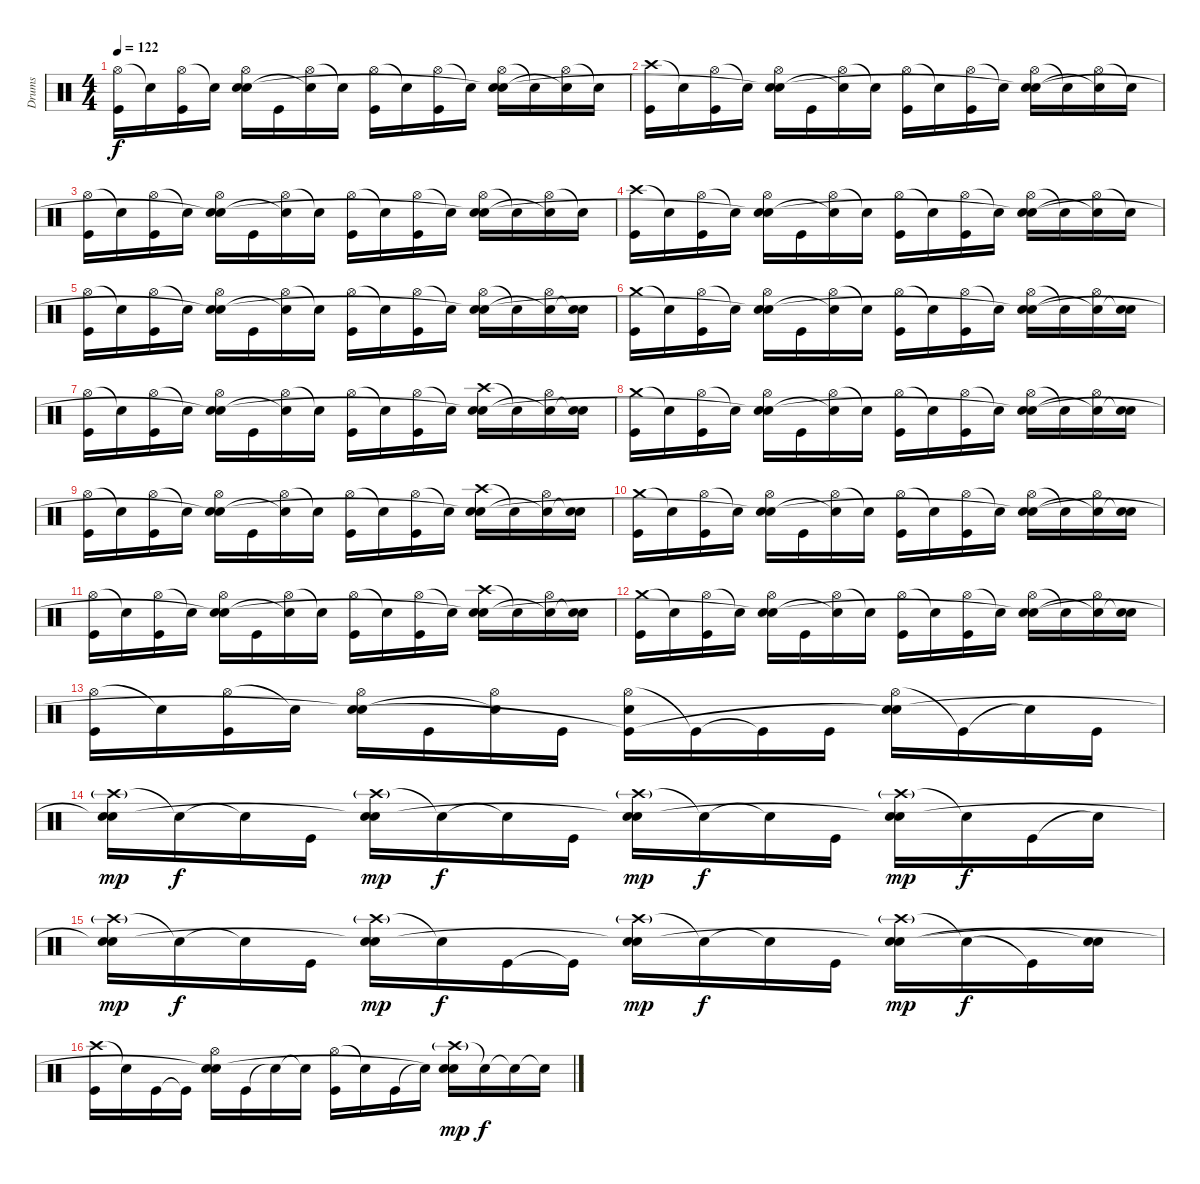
\track ("Drums" "Drums") {instrument percussion}
\staff {score}
\articulation defaults
\ts (4 4)
\tempo 122
\clef neutral
\ks c
("Hi-Hat (open)" "Kick (hit)").16{dy f} "Snare (hit)"{t}.16 ("Hi-Hat (open)" "Kick (hit)").16 "Snare (hit)"{t}.16 ("Hi-Hat (open)" "Electric Snare (hit)" "Snare (hit)"{t}).16 "Kick (hit)".16 ("Hi-Hat (open)" "Snare (hit)"{t}).16 "Snare (hit)"{t}.16 ("Hi-Hat (open)" "Kick (hit)").16 "Snare (hit)"{t}.16 ("Hi-Hat (open)" "Kick (hit)").16 "Snare (hit)"{t}.16 ("Hi-Hat (open)" "Electric Snare (hit)" "Snare (hit)"{t}).16 "Snare (hit)"{t}.16 ("Hi-Hat (open)" "Snare (hit)"{t}).16 "Snare (hit)"{t}.16 |
("Crash high (hit)" "Kick (hit)").16 "Snare (hit)"{t}.16 ("Hi-Hat (open)" "Kick (hit)").16 "Snare (hit)"{t}.16 ("Hi-Hat (open)" "Electric Snare (hit)" "Snare (hit)"{t}).16 "Kick (hit)".16 ("Hi-Hat (open)" "Snare (hit)"{t}).16 "Snare (hit)"{t}.16 ("Hi-Hat (open)" "Kick (hit)").16 "Snare (hit)"{t}.16 ("Hi-Hat (open)" "Kick (hit)").16 "Snare (hit)"{t}.16 ("Hi-Hat (open)" "Electric Snare (hit)" "Snare (hit)"{t}).16 "Snare (hit)"{t}.16 ("Hi-Hat (open)" "Snare (hit)"{t}).16 "Snare (hit)"{t}.16 |
("Hi-Hat (open)" "Kick (hit)").16 "Snare (hit)"{t}.16 ("Hi-Hat (open)" "Kick (hit)").16 "Snare (hit)"{t}.16 ("Hi-Hat (open)" "Electric Snare (hit)" "Snare (hit)"{t}).16 "Kick (hit)".16 ("Hi-Hat (open)" "Snare (hit)"{t}).16 "Snare (hit)"{t}.16 ("Hi-Hat (open)" "Kick (hit)").16 "Snare (hit)"{t}.16 ("Hi-Hat (open)" "Kick (hit)").16 "Snare (hit)"{t}.16 ("Hi-Hat (open)" "Electric Snare (hit)" "Snare (hit)"{t}).16 "Snare (hit)"{t}.16 ("Hi-Hat (open)" "Snare (hit)"{t}).16 "Snare (hit)"{t}.16 |
("Crash high (hit)" "Kick (hit)").16 "Snare (hit)"{t}.16 ("Hi-Hat (open)" "Kick (hit)").16 "Snare (hit)"{t}.16 ("Hi-Hat (open)" "Electric Snare (hit)" "Snare (hit)"{t}).16 "Kick (hit)".16 ("Hi-Hat (open)" "Snare (hit)"{t}).16 "Snare (hit)"{t}.16 ("Hi-Hat (open)" "Kick (hit)").16 "Snare (hit)"{t}.16 ("Hi-Hat (open)" "Kick (hit)").16 "Snare (hit)"{t}.16 ("Hi-Hat (open)" "Electric Snare (hit)" "Snare (hit)"{t}).16 "Snare (hit)"{t}.16 ("Hi-Hat (open)" "Snare (hit)"{t}).16 "Snare (hit)"{t}.16 |
("Hi-Hat (open)" "Kick (hit)").16 "Snare (hit)"{t}.16 ("Hi-Hat (open)" "Kick (hit)").16 "Snare (hit)"{t}.16 ("Hi-Hat (open)" "Electric Snare (hit)" "Snare (hit)"{t}).16 "Kick (hit)".16 ("Hi-Hat (open)" "Snare (hit)"{t}).16 "Snare (hit)"{t}.16 ("Hi-Hat (open)" "Kick (hit)").16 "Snare (hit)"{t}.16 ("Hi-Hat (open)" "Kick (hit)").16 "Snare (hit)"{t}.16 ("Hi-Hat (open)" "Electric Snare (hit)" "Snare (hit)"{t}).16 "Snare (hit)"{t}.16 ("Hi-Hat (open)" "Snare (hit)"{t}).16 ("Electric Snare (hit)" "Snare (hit)"{t}).16 |
("Crash medium (hit)" "Kick (hit)").16 "Snare (hit)"{t}.16 ("Hi-Hat (open)" "Kick (hit)").16 "Snare (hit)"{t}.16 ("Hi-Hat (open)" "Electric Snare (hit)" "Snare (hit)"{t}).16 "Kick (hit)".16 ("Hi-Hat (open)" "Snare (hit)"{t}).16 "Snare (hit)"{t}.16 ("Hi-Hat (open)" "Kick (hit)").16 "Snare (hit)"{t}.16 ("Hi-Hat (open)" "Kick (hit)").16 "Snare (hit)"{t}.16 ("Hi-Hat (open)" "Electric Snare (hit)" "Snare (hit)"{t}).16 "Snare (hit)"{t}.16 ("Hi-Hat (open)" "Snare (hit)"{t}).16 ("Electric Snare (hit)" "Snare (hit)"{t}).16 |
("Hi-Hat (open)" "Kick (hit)").16 "Snare (hit)"{t}.16 ("Hi-Hat (open)" "Kick (hit)").16 "Snare (hit)"{t}.16 ("Hi-Hat (open)" "Electric Snare (hit)" "Snare (hit)"{t}).16 "Kick (hit)".16 ("Hi-Hat (open)" "Snare (hit)"{t}).16 "Snare (hit)"{t}.16 ("Hi-Hat (open)" "Kick (hit)").16 "Snare (hit)"{t}.16 ("Hi-Hat (open)" "Kick (hit)").16 "Snare (hit)"{t}.16 ("Crash high (hit)" "Electric Snare (hit)" "Snare (hit)"{t}).16 "Snare (hit)"{t}.16 ("Hi-Hat (open)" "Snare (hit)"{t}).16 ("Electric Snare (hit)" "Snare (hit)"{t}).16 |
("Crash medium (hit)" "Kick (hit)").16 "Snare (hit)"{t}.16 ("Hi-Hat (open)" "Kick (hit)").16 "Snare (hit)"{t}.16 ("Hi-Hat (open)" "Electric Snare (hit)" "Snare (hit)"{t}).16 "Kick (hit)".16 ("Hi-Hat (open)" "Snare (hit)"{t}).16 "Snare (hit)"{t}.16 ("Hi-Hat (open)" "Kick (hit)").16 "Snare (hit)"{t}.16 ("Hi-Hat (open)" "Kick (hit)").16 "Snare (hit)"{t}.16 ("Hi-Hat (open)" "Electric Snare (hit)" "Snare (hit)"{t}).16 "Snare (hit)"{t}.16 ("Hi-Hat (open)" "Snare (hit)"{t}).16 ("Electric Snare (hit)" "Snare (hit)"{t}).16 |
("Hi-Hat (open)" "Kick (hit)").16 "Snare (hit)"{t}.16 ("Hi-Hat (open)" "Kick (hit)").16 "Snare (hit)"{t}.16 ("Hi-Hat (open)" "Electric Snare (hit)" "Snare (hit)"{t}).16 "Kick (hit)".16 ("Hi-Hat (open)" "Snare (hit)"{t}).16 "Snare (hit)"{t}.16 ("Hi-Hat (open)" "Kick (hit)").16 "Snare (hit)"{t}.16 ("Hi-Hat (open)" "Kick (hit)").16 "Snare (hit)"{t}.16 ("Crash high (hit)" "Electric Snare (hit)" "Snare (hit)"{t}).16 "Snare (hit)"{t}.16 ("Hi-Hat (open)" "Snare (hit)"{t}).16 ("Electric Snare (hit)" "Snare (hit)"{t}).16 |
("Crash medium (hit)" "Kick (hit)").16 "Snare (hit)"{t}.16 ("Hi-Hat (open)" "Kick (hit)").16 "Snare (hit)"{t}.16 ("Hi-Hat (open)" "Electric Snare (hit)" "Snare (hit)"{t}).16 "Kick (hit)".16 ("Hi-Hat (open)" "Snare (hit)"{t}).16 "Snare (hit)"{t}.16 ("Hi-Hat (open)" "Kick (hit)").16 "Snare (hit)"{t}.16 ("Hi-Hat (open)" "Kick (hit)").16 "Snare (hit)"{t}.16 ("Hi-Hat (open)" "Electric Snare (hit)" "Snare (hit)"{t}).16 "Snare (hit)"{t}.16 ("Hi-Hat (open)" "Snare (hit)"{t}).16 ("Electric Snare (hit)" "Snare (hit)"{t}).16 |
("Hi-Hat (open)" "Kick (hit)").16 "Snare (hit)"{t}.16 ("Hi-Hat (open)" "Kick (hit)").16 "Snare (hit)"{t}.16 ("Hi-Hat (open)" "Electric Snare (hit)" "Snare (hit)"{t}).16 "Kick (hit)".16 ("Hi-Hat (open)" "Snare (hit)"{t}).16 "Snare (hit)"{t}.16 ("Hi-Hat (open)" "Kick (hit)").16 "Snare (hit)"{t}.16 ("Hi-Hat (open)" "Kick (hit)").16 "Snare (hit)"{t}.16 ("Crash high (hit)" "Electric Snare (hit)" "Snare (hit)"{t}).16 "Snare (hit)"{t}.16 ("Hi-Hat (open)" "Snare (hit)"{t}).16 ("Electric Snare (hit)" "Snare (hit)"{t}).16 |
("Crash medium (hit)" "Kick (hit)").16 "Snare (hit)"{t}.16 ("Hi-Hat (open)" "Kick (hit)").16 "Snare (hit)"{t}.16 ("Hi-Hat (open)" "Electric Snare (hit)" "Snare (hit)"{t}).16 "Kick (hit)".16 ("Hi-Hat (open)" "Snare (hit)"{t}).16 "Snare (hit)"{t}.16 ("Hi-Hat (open)" "Kick (hit)").16 "Snare (hit)"{t}.16 ("Hi-Hat (open)" "Kick (hit)").16 "Snare (hit)"{t}.16 ("Hi-Hat (open)" "Electric Snare (hit)" "Snare (hit)"{t}).16 "Snare (hit)"{t}.16 ("Hi-Hat (open)" "Snare (hit)"{t}).16 ("Electric Snare (hit)" "Snare (hit)"{t}).16 |
("Hi-Hat (open)" "Kick (hit)").16 "Snare (hit)"{t}.16 ("Hi-Hat (open)" "Kick (hit)").16 "Snare (hit)"{t}.16 ("Hi-Hat (open)" "Electric Snare (hit)" "Snare (hit)"{t}).16 "Kick (hit)".16 ("Hi-Hat (open)" "Snare (hit)"{t}).16 "Kick (hit)".16 ("Hi-Hat (open)" "Electric Snare (hit)" "Kick (hit)"{t}).16 "Kick (hit)"{t}.16 "Kick (hit)"{t}.16 "Kick (hit)".16 ("Hi-Hat (open)" "Electric Snare (hit)" "Snare (hit)"{t}).16 "Kick (hit)"{t}.16 "Snare (hit)"{t}.16 "Kick (hit)".16 |
("Crash high (hit)"{g} "Electric Snare (hit)" "Snare (hit)"{t}).16{dy mp} "Snare (hit)"{t}.16{dy f} "Snare (hit)"{t}.16 "Kick (hit)".16 ("Crash high (hit)"{g} "Electric Snare (hit)" "Snare (hit)"{t}).16{dy mp} "Snare (hit)"{t}.16{dy f} "Snare (hit)"{t}.16 "Kick (hit)".16 ("Crash high (hit)"{g} "Electric Snare (hit)" "Snare (hit)"{t}).16{dy mp} "Snare (hit)"{t}.16{dy f} "Snare (hit)"{t}.16 "Kick (hit)".16 ("Crash high (hit)"{g} "Electric Snare (hit)" "Snare (hit)"{t}).16{dy mp} "Snare (hit)"{t}.16{dy f} "Kick (hit)".16 "Snare (hit)"{t}.16 |
("Crash high (hit)"{g} "Electric Snare (hit)" "Snare (hit)"{t}).16{dy mp} "Snare (hit)"{t}.16{dy f} "Snare (hit)"{t}.16 "Kick (hit)".16 ("Crash high (hit)"{g} "Electric Snare (hit)" "Snare (hit)"{t}).16{dy mp} "Snare (hit)"{t}.16{dy f} "Kick (hit)".16 "Kick (hit)"{t}.16 ("Crash high (hit)"{g} "Electric Snare (hit)" "Snare (hit)"{t}).16{dy mp} "Snare (hit)"{t}.16{dy f} "Snare (hit)"{t}.16 "Kick (hit)".16 ("Crash high (hit)"{g} "Electric Snare (hit)" "Snare (hit)"{t}).16{dy mp} "Snare (hit)"{t}.16{dy f} "Kick (hit)"{t}.16 ("Electric Snare (hit)" "Snare (hit)"{t}).16 |
("Crash high (hit)" "Kick (hit)").16 "Snare (hit)"{t}.16 "Kick (hit)".16 "Kick (hit)"{t}.16 ("Hi-Hat (open)" "Electric Snare (hit)" "Snare (hit)"{t}).16 "Kick (hit)".16 "Snare (hit)"{t}.16 "Snare (hit)"{t}.16 ("Hi-Hat (open)" "Kick (hit)").16 "Snare (hit)"{t}.16 "Kick (hit)".16 "Snare (hit)"{t}.16 ("Crash high (hit)"{g} "Electric Snare (hit)" "Snare (hit)"{t}).16{dy mp} "Snare (hit)"{t}.16{dy f} "Snare (hit)"{t}.16 "Snare (hit)"{t}.16
